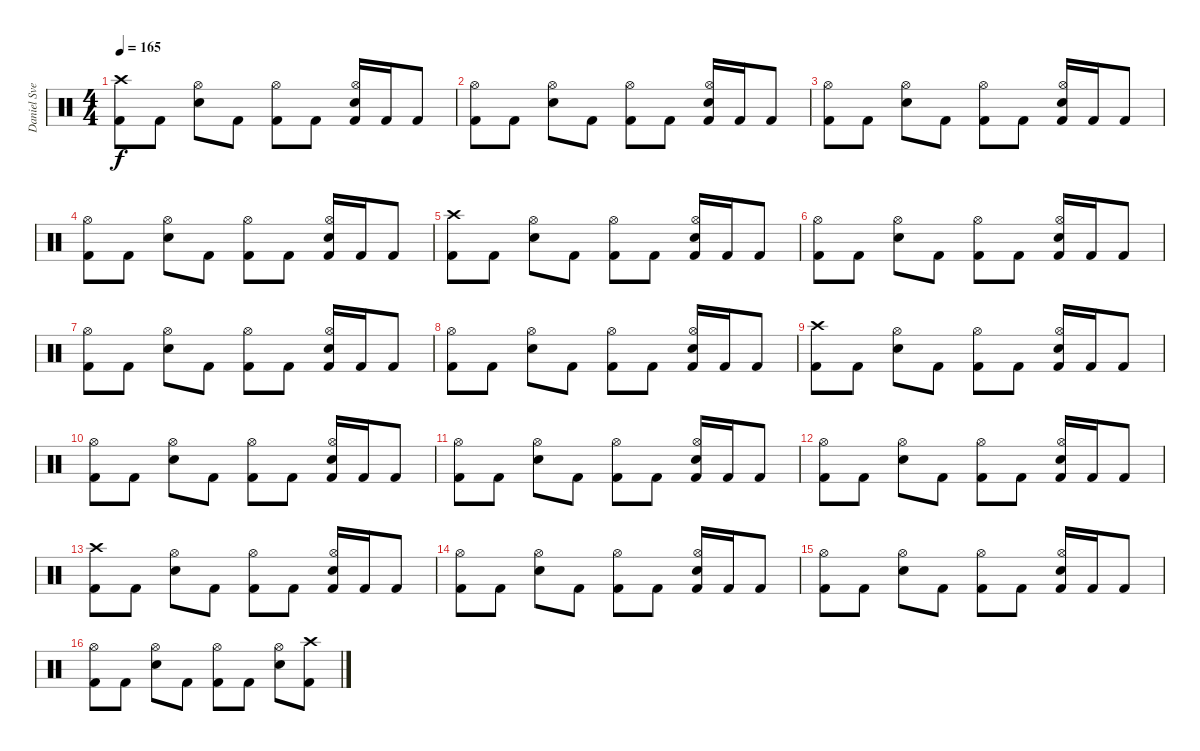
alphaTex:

\track ("Daniel Svensson" "Daniel Sve") {instrument percussion}
\staff {score}
\articulation defaults
\ts (4 4)
\tempo 165
\clef neutral
\ks c
("Crash high (hit)" "Kick (hit) 2").8{dy f} "Kick (hit) 2".8 ("Hi-Hat (open)" "Electric Snare (hit)").8 "Kick (hit) 2".8 ("Hi-Hat (open)" "Kick (hit) 2").8 "Kick (hit) 2".8 ("Hi-Hat (open)" "Electric Snare (hit)" "Kick (hit) 2").16 "Kick (hit) 2".16 "Kick (hit) 2".8 |
("Hi-Hat (open)" "Kick (hit) 2").8 "Kick (hit) 2".8 ("Hi-Hat (open)" "Electric Snare (hit)").8 "Kick (hit) 2".8 ("Hi-Hat (open)" "Kick (hit) 2").8 "Kick (hit) 2".8 ("Hi-Hat (open)" "Electric Snare (hit)" "Kick (hit) 2").16 "Kick (hit) 2".16 "Kick (hit) 2".8 |
("Hi-Hat (open)" "Kick (hit) 2").8 "Kick (hit) 2".8 ("Hi-Hat (open)" "Electric Snare (hit)").8 "Kick (hit) 2".8 ("Hi-Hat (open)" "Kick (hit) 2").8 "Kick (hit) 2".8 ("Hi-Hat (open)" "Electric Snare (hit)" "Kick (hit) 2").16 "Kick (hit) 2".16 "Kick (hit) 2".8 |
("Hi-Hat (open)" "Kick (hit) 2").8 "Kick (hit) 2".8 ("Hi-Hat (open)" "Electric Snare (hit)").8 "Kick (hit) 2".8 ("Hi-Hat (open)" "Kick (hit) 2").8 "Kick (hit) 2".8 ("Hi-Hat (open)" "Electric Snare (hit)" "Kick (hit) 2").16 "Kick (hit) 2".16 "Kick (hit) 2".8 |
("Crash high (hit)" "Kick (hit) 2").8 "Kick (hit) 2".8 ("Hi-Hat (open)" "Electric Snare (hit)").8 "Kick (hit) 2".8 ("Hi-Hat (open)" "Kick (hit) 2").8 "Kick (hit) 2".8 ("Hi-Hat (open)" "Electric Snare (hit)" "Kick (hit) 2").16 "Kick (hit) 2".16 "Kick (hit) 2".8 |
("Hi-Hat (open)" "Kick (hit) 2").8 "Kick (hit) 2".8 ("Hi-Hat (open)" "Electric Snare (hit)").8 "Kick (hit) 2".8 ("Hi-Hat (open)" "Kick (hit) 2").8 "Kick (hit) 2".8 ("Hi-Hat (open)" "Electric Snare (hit)" "Kick (hit) 2").16 "Kick (hit) 2".16 "Kick (hit) 2".8 |
("Hi-Hat (open)" "Kick (hit) 2").8 "Kick (hit) 2".8 ("Hi-Hat (open)" "Electric Snare (hit)").8 "Kick (hit) 2".8 ("Hi-Hat (open)" "Kick (hit) 2").8 "Kick (hit) 2".8 ("Hi-Hat (open)" "Electric Snare (hit)" "Kick (hit) 2").16 "Kick (hit) 2".16 "Kick (hit) 2".8 |
("Hi-Hat (open)" "Kick (hit) 2").8 "Kick (hit) 2".8 ("Hi-Hat (open)" "Electric Snare (hit)").8 "Kick (hit) 2".8 ("Hi-Hat (open)" "Kick (hit) 2").8 "Kick (hit) 2".8 ("Hi-Hat (open)" "Electric Snare (hit)" "Kick (hit) 2").16 "Kick (hit) 2".16 "Kick (hit) 2".8 |
("Crash high (hit)" "Kick (hit) 2").8 "Kick (hit) 2".8 ("Hi-Hat (open)" "Electric Snare (hit)").8 "Kick (hit) 2".8 ("Hi-Hat (open)" "Kick (hit) 2").8 "Kick (hit) 2".8 ("Hi-Hat (open)" "Electric Snare (hit)" "Kick (hit) 2").16 "Kick (hit) 2".16 "Kick (hit) 2".8 |
("Hi-Hat (open)" "Kick (hit) 2").8 "Kick (hit) 2".8 ("Hi-Hat (open)" "Electric Snare (hit)").8 "Kick (hit) 2".8 ("Hi-Hat (open)" "Kick (hit) 2").8 "Kick (hit) 2".8 ("Hi-Hat (open)" "Electric Snare (hit)" "Kick (hit) 2").16 "Kick (hit) 2".16 "Kick (hit) 2".8 |
("Hi-Hat (open)" "Kick (hit) 2").8 "Kick (hit) 2".8 ("Hi-Hat (open)" "Electric Snare (hit)").8 "Kick (hit) 2".8 ("Hi-Hat (open)" "Kick (hit) 2").8 "Kick (hit) 2".8 ("Hi-Hat (open)" "Electric Snare (hit)" "Kick (hit) 2").16 "Kick (hit) 2".16 "Kick (hit) 2".8 |
("Hi-Hat (open)" "Kick (hit) 2").8 "Kick (hit) 2".8 ("Hi-Hat (open)" "Electric Snare (hit)").8 "Kick (hit) 2".8 ("Hi-Hat (open)" "Kick (hit) 2").8 "Kick (hit) 2".8 ("Hi-Hat (open)" "Electric Snare (hit)" "Kick (hit) 2").16 "Kick (hit) 2".16 "Kick (hit) 2".8 |
("Crash high (hit)" "Kick (hit) 2").8 "Kick (hit) 2".8 ("Hi-Hat (open)" "Electric Snare (hit)").8 "Kick (hit) 2".8 ("Hi-Hat (open)" "Kick (hit) 2").8 "Kick (hit) 2".8 ("Hi-Hat (open)" "Electric Snare (hit)" "Kick (hit) 2").16 "Kick (hit) 2".16 "Kick (hit) 2".8 |
("Hi-Hat (open)" "Kick (hit) 2").8 "Kick (hit) 2".8 ("Hi-Hat (open)" "Electric Snare (hit)").8 "Kick (hit) 2".8 ("Hi-Hat (open)" "Kick (hit) 2").8 "Kick (hit) 2".8 ("Hi-Hat (open)" "Electric Snare (hit)" "Kick (hit) 2").16 "Kick (hit) 2".16 "Kick (hit) 2".8 |
("Hi-Hat (open)" "Kick (hit) 2").8 "Kick (hit) 2".8 ("Hi-Hat (open)" "Electric Snare (hit)").8 "Kick (hit) 2".8 ("Hi-Hat (open)" "Kick (hit) 2").8 "Kick (hit) 2".8 ("Hi-Hat (open)" "Electric Snare (hit)" "Kick (hit) 2").16 "Kick (hit) 2".16 "Kick (hit) 2".8 |
("Hi-Hat (open)" "Kick (hit) 2").8 "Kick (hit) 2".8 ("Hi-Hat (open)" "Electric Snare (hit)").8 "Kick (hit) 2".8 ("Hi-Hat (open)" "Kick (hit) 2").8 "Kick (hit) 2".8 ("Hi-Hat (open)" "Electric Snare (hit)").8 ("Crash high (hit)" "Kick (hit) 2").8
